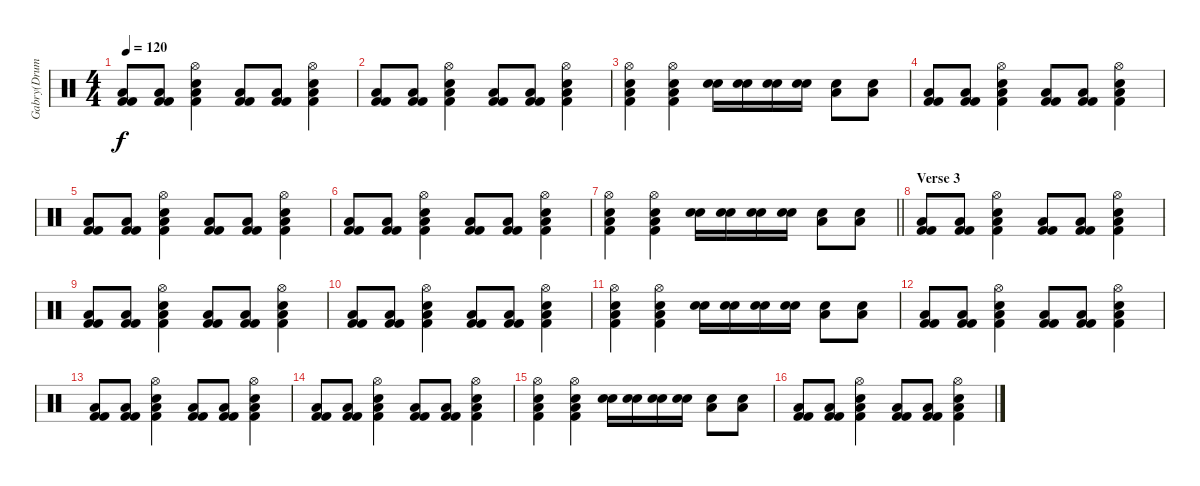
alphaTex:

\track ("Gabry(Drums)" "Gabry(Drum") {instrument percussion}
\staff {score}
\articulation defaults
\ts (4 4)
\tempo 120
\clef neutral
\ks c
("Kick (hit) 2" "Kick (hit) 2" "Low Floor Tom (hit)").8{dy f} ("Kick (hit) 2" "Kick (hit) 2" "Low Floor Tom (hit)").8 ("Kick (hit) 2" "Electric Snare (hit)" "Low Floor Tom (hit)" "Hi-Hat (open)").4 ("Kick (hit) 2" "Kick (hit) 2" "Low Floor Tom (hit)").8 ("Kick (hit) 2" "Kick (hit) 2" "Low Floor Tom (hit)").8 ("Kick (hit) 2" "Electric Snare (hit)" "Low Floor Tom (hit)" "Hi-Hat (open)").4 |
("Kick (hit) 2" "Kick (hit) 2" "Low Floor Tom (hit)").8 ("Kick (hit) 2" "Kick (hit) 2" "Low Floor Tom (hit)").8 ("Kick (hit) 2" "Electric Snare (hit)" "Low Floor Tom (hit)" "Hi-Hat (open)").4 ("Kick (hit) 2" "Kick (hit) 2" "Low Floor Tom (hit)").8 ("Kick (hit) 2" "Kick (hit) 2" "Low Floor Tom (hit)").8 ("Kick (hit) 2" "Electric Snare (hit)" "Low Floor Tom (hit)" "Hi-Hat (open)").4 |
("Kick (hit) 2" "Electric Snare (hit)" "Low Floor Tom (hit)" "Hi-Hat (open)").4 ("Kick (hit) 2" "Electric Snare (hit)" "Low Floor Tom (hit)" "Hi-Hat (open)").4 ("Electric Snare (hit)" "Electric Snare (hit)").16 ("Electric Snare (hit)" "Electric Snare (hit)").16 ("Electric Snare (hit)" "Electric Snare (hit)").16 ("Electric Snare (hit)" "Electric Snare (hit)").16 ("Electric Snare (hit)" "Low Floor Tom (hit)").8 ("Electric Snare (hit)" "Low Floor Tom (hit)").8 |
("Kick (hit) 2" "Kick (hit) 2" "Low Floor Tom (hit)").8 ("Kick (hit) 2" "Kick (hit) 2" "Low Floor Tom (hit)").8 ("Kick (hit) 2" "Electric Snare (hit)" "Low Floor Tom (hit)" "Hi-Hat (open)").4 ("Kick (hit) 2" "Kick (hit) 2" "Low Floor Tom (hit)").8 ("Kick (hit) 2" "Kick (hit) 2" "Low Floor Tom (hit)").8 ("Kick (hit) 2" "Electric Snare (hit)" "Low Floor Tom (hit)" "Hi-Hat (open)").4 |
("Kick (hit) 2" "Kick (hit) 2" "Low Floor Tom (hit)").8 ("Kick (hit) 2" "Kick (hit) 2" "Low Floor Tom (hit)").8 ("Kick (hit) 2" "Electric Snare (hit)" "Low Floor Tom (hit)" "Hi-Hat (open)").4 ("Kick (hit) 2" "Kick (hit) 2" "Low Floor Tom (hit)").8 ("Kick (hit) 2" "Kick (hit) 2" "Low Floor Tom (hit)").8 ("Kick (hit) 2" "Electric Snare (hit)" "Low Floor Tom (hit)" "Hi-Hat (open)").4 |
("Kick (hit) 2" "Kick (hit) 2" "Low Floor Tom (hit)").8 ("Kick (hit) 2" "Kick (hit) 2" "Low Floor Tom (hit)").8 ("Kick (hit) 2" "Electric Snare (hit)" "Low Floor Tom (hit)" "Hi-Hat (open)").4 ("Kick (hit) 2" "Kick (hit) 2" "Low Floor Tom (hit)").8 ("Kick (hit) 2" "Kick (hit) 2" "Low Floor Tom (hit)").8 ("Kick (hit) 2" "Electric Snare (hit)" "Low Floor Tom (hit)" "Hi-Hat (open)").4 |
\barLineRight lightlight
("Kick (hit) 2" "Electric Snare (hit)" "Low Floor Tom (hit)" "Hi-Hat (open)").4 ("Kick (hit) 2" "Electric Snare (hit)" "Low Floor Tom (hit)" "Hi-Hat (open)").4 ("Electric Snare (hit)" "Electric Snare (hit)").16 ("Electric Snare (hit)" "Electric Snare (hit)").16 ("Electric Snare (hit)" "Electric Snare (hit)").16 ("Electric Snare (hit)" "Electric Snare (hit)").16 ("Electric Snare (hit)" "Low Floor Tom (hit)").8 ("Electric Snare (hit)" "Low Floor Tom (hit)").8 |
\section ("" "Verse 3")
("Kick (hit) 2" "Kick (hit) 2" "Low Floor Tom (hit)").8 ("Kick (hit) 2" "Kick (hit) 2" "Low Floor Tom (hit)").8 ("Kick (hit) 2" "Electric Snare (hit)" "Low Floor Tom (hit)" "Hi-Hat (open)").4 ("Kick (hit) 2" "Kick (hit) 2" "Low Floor Tom (hit)").8 ("Kick (hit) 2" "Kick (hit) 2" "Low Floor Tom (hit)").8 ("Kick (hit) 2" "Electric Snare (hit)" "Low Floor Tom (hit)" "Hi-Hat (open)").4 |
("Kick (hit) 2" "Kick (hit) 2" "Low Floor Tom (hit)").8 ("Kick (hit) 2" "Kick (hit) 2" "Low Floor Tom (hit)").8 ("Kick (hit) 2" "Electric Snare (hit)" "Low Floor Tom (hit)" "Hi-Hat (open)").4 ("Kick (hit) 2" "Kick (hit) 2" "Low Floor Tom (hit)").8 ("Kick (hit) 2" "Kick (hit) 2" "Low Floor Tom (hit)").8 ("Kick (hit) 2" "Electric Snare (hit)" "Low Floor Tom (hit)" "Hi-Hat (open)").4 |
("Kick (hit) 2" "Kick (hit) 2" "Low Floor Tom (hit)").8 ("Kick (hit) 2" "Kick (hit) 2" "Low Floor Tom (hit)").8 ("Kick (hit) 2" "Electric Snare (hit)" "Low Floor Tom (hit)" "Hi-Hat (open)").4 ("Kick (hit) 2" "Kick (hit) 2" "Low Floor Tom (hit)").8 ("Kick (hit) 2" "Kick (hit) 2" "Low Floor Tom (hit)").8 ("Kick (hit) 2" "Electric Snare (hit)" "Low Floor Tom (hit)" "Hi-Hat (open)").4 |
("Kick (hit) 2" "Electric Snare (hit)" "Low Floor Tom (hit)" "Hi-Hat (open)").4 ("Kick (hit) 2" "Electric Snare (hit)" "Low Floor Tom (hit)" "Hi-Hat (open)").4 ("Electric Snare (hit)" "Electric Snare (hit)").16 ("Electric Snare (hit)" "Electric Snare (hit)").16 ("Electric Snare (hit)" "Electric Snare (hit)").16 ("Electric Snare (hit)" "Electric Snare (hit)").16 ("Electric Snare (hit)" "Low Floor Tom (hit)").8 ("Electric Snare (hit)" "Low Floor Tom (hit)").8 |
("Kick (hit) 2" "Kick (hit) 2" "Low Floor Tom (hit)").8 ("Kick (hit) 2" "Kick (hit) 2" "Low Floor Tom (hit)").8 ("Kick (hit) 2" "Electric Snare (hit)" "Low Floor Tom (hit)" "Hi-Hat (open)").4 ("Kick (hit) 2" "Kick (hit) 2" "Low Floor Tom (hit)").8 ("Kick (hit) 2" "Kick (hit) 2" "Low Floor Tom (hit)").8 ("Kick (hit) 2" "Electric Snare (hit)" "Low Floor Tom (hit)" "Hi-Hat (open)").4 |
("Kick (hit) 2" "Kick (hit) 2" "Low Floor Tom (hit)").8 ("Kick (hit) 2" "Kick (hit) 2" "Low Floor Tom (hit)").8 ("Kick (hit) 2" "Electric Snare (hit)" "Low Floor Tom (hit)" "Hi-Hat (open)").4 ("Kick (hit) 2" "Kick (hit) 2" "Low Floor Tom (hit)").8 ("Kick (hit) 2" "Kick (hit) 2" "Low Floor Tom (hit)").8 ("Kick (hit) 2" "Electric Snare (hit)" "Low Floor Tom (hit)" "Hi-Hat (open)").4 |
("Kick (hit) 2" "Kick (hit) 2" "Low Floor Tom (hit)").8 ("Kick (hit) 2" "Kick (hit) 2" "Low Floor Tom (hit)").8 ("Kick (hit) 2" "Electric Snare (hit)" "Low Floor Tom (hit)" "Hi-Hat (open)").4 ("Kick (hit) 2" "Kick (hit) 2" "Low Floor Tom (hit)").8 ("Kick (hit) 2" "Kick (hit) 2" "Low Floor Tom (hit)").8 ("Kick (hit) 2" "Electric Snare (hit)" "Low Floor Tom (hit)" "Hi-Hat (open)").4 |
("Kick (hit) 2" "Electric Snare (hit)" "Low Floor Tom (hit)" "Hi-Hat (open)").4 ("Kick (hit) 2" "Electric Snare (hit)" "Low Floor Tom (hit)" "Hi-Hat (open)").4 ("Electric Snare (hit)" "Electric Snare (hit)").16 ("Electric Snare (hit)" "Electric Snare (hit)").16 ("Electric Snare (hit)" "Electric Snare (hit)").16 ("Electric Snare (hit)" "Electric Snare (hit)").16 ("Electric Snare (hit)" "Low Floor Tom (hit)").8 ("Electric Snare (hit)" "Low Floor Tom (hit)").8 |
("Kick (hit) 2" "Kick (hit) 2" "Low Floor Tom (hit)").8 ("Kick (hit) 2" "Kick (hit) 2" "Low Floor Tom (hit)").8 ("Kick (hit) 2" "Electric Snare (hit)" "Low Floor Tom (hit)" "Hi-Hat (open)").4 ("Kick (hit) 2" "Kick (hit) 2" "Low Floor Tom (hit)").8 ("Kick (hit) 2" "Kick (hit) 2" "Low Floor Tom (hit)").8 ("Kick (hit) 2" "Electric Snare (hit)" "Low Floor Tom (hit)" "Hi-Hat (open)").4
